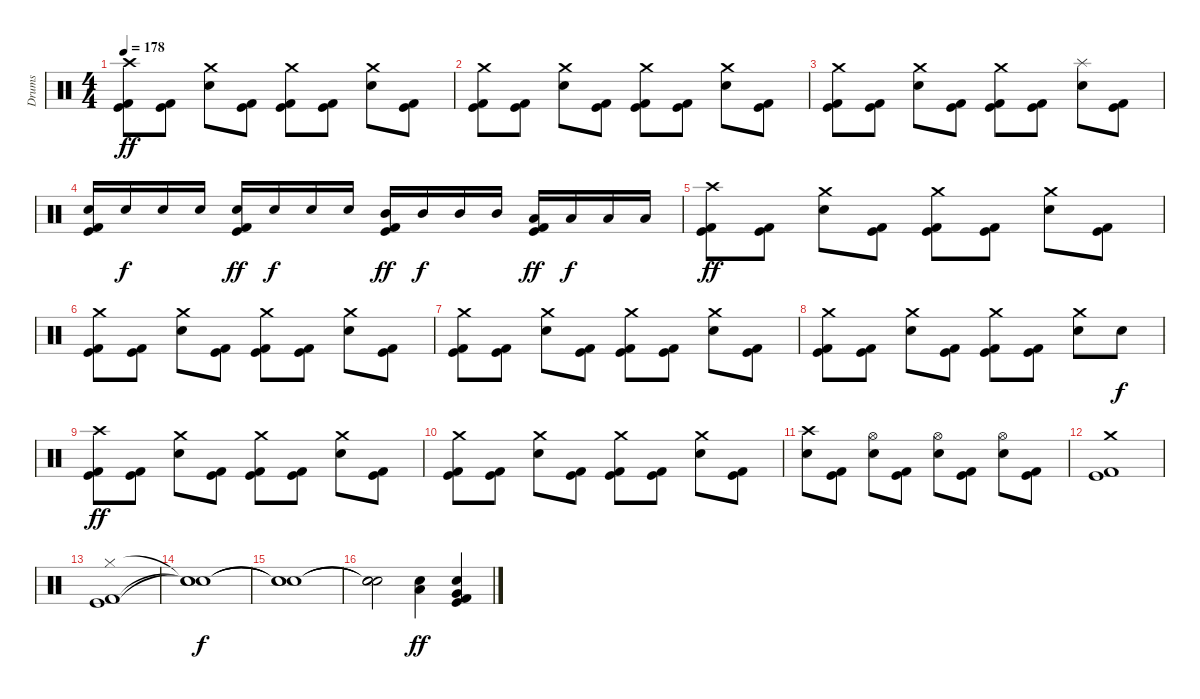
\track ("Drums" "Drums") {instrument percussion}
\staff {score}
\articulation defaults
\ts (4 4)
\tempo 178
\clef neutral
\ks c
("Kick (hit)" "Kick (hit) 2" "Crash high (hit)").8{dy ff} ("Kick (hit)" "Kick (hit) 2").8 ("Electric Snare (hit)" "Crash medium (hit)").8 ("Kick (hit)" "Kick (hit) 2").8 ("Kick (hit)" "Kick (hit) 2" "Crash medium (hit)").8 ("Kick (hit)" "Kick (hit) 2").8 ("Electric Snare (hit)" "Crash medium (hit)").8 ("Kick (hit)" "Kick (hit) 2").8 |
("Kick (hit)" "Kick (hit) 2" "Crash medium (hit)").8 ("Kick (hit)" "Kick (hit) 2").8 ("Electric Snare (hit)" "Crash medium (hit)").8 ("Kick (hit)" "Kick (hit) 2").8 ("Kick (hit)" "Kick (hit) 2" "Crash medium (hit)").8 ("Kick (hit)" "Kick (hit) 2").8 ("Electric Snare (hit)" "Crash medium (hit)").8 ("Kick (hit)" "Kick (hit) 2").8 |
("Kick (hit)" "Kick (hit) 2" "Crash medium (hit)").8 ("Kick (hit)" "Kick (hit) 2").8 ("Electric Snare (hit)" "Crash medium (hit)").8 ("Kick (hit)" "Kick (hit) 2").8 ("Kick (hit)" "Kick (hit) 2" "Crash medium (hit)").8 ("Kick (hit)" "Kick (hit) 2").8 ("Electric Snare (hit)" "Splash (hit)").8 ("Kick (hit)" "Kick (hit) 2").8 |
("Kick (hit)" "Kick (hit) 2" "Electric Snare (hit)").16 "Electric Snare (hit)".16{dy f} "Electric Snare (hit)".16 "Electric Snare (hit)".16 ("Kick (hit)" "Kick (hit) 2" "Electric Snare (hit)").16{dy ff} "Electric Snare (hit)".16{dy f} "Electric Snare (hit)".16 "Electric Snare (hit)".16 ("Kick (hit)" "Kick (hit) 2" "Mid Tom (hit)").16{dy ff} "Mid Tom (hit)".16{dy f} "Mid Tom (hit)".16 "Mid Tom (hit)".16 ("Kick (hit)" "Kick (hit) 2" "Low Tom (hit)").16{dy ff} "Low Tom (hit)".16{dy f} "Low Tom (hit)".16 "Low Tom (hit)".16 |
("Kick (hit)" "Kick (hit) 2" "Crash high (hit)").8{dy ff} ("Kick (hit)" "Kick (hit) 2").8 ("Electric Snare (hit)" "Crash medium (hit)").8 ("Kick (hit)" "Kick (hit) 2").8 ("Kick (hit)" "Kick (hit) 2" "Crash medium (hit)").8 ("Kick (hit)" "Kick (hit) 2").8 ("Electric Snare (hit)" "Crash medium (hit)").8 ("Kick (hit)" "Kick (hit) 2").8 |
("Kick (hit)" "Kick (hit) 2" "Crash medium (hit)").8 ("Kick (hit)" "Kick (hit) 2").8 ("Electric Snare (hit)" "Crash medium (hit)").8 ("Kick (hit)" "Kick (hit) 2").8 ("Kick (hit)" "Kick (hit) 2" "Crash medium (hit)").8 ("Kick (hit)" "Kick (hit) 2").8 ("Electric Snare (hit)" "Crash medium (hit)").8 ("Kick (hit)" "Kick (hit) 2").8 |
("Kick (hit)" "Kick (hit) 2" "Crash medium (hit)").8 ("Kick (hit)" "Kick (hit) 2").8 ("Electric Snare (hit)" "Crash medium (hit)").8 ("Kick (hit)" "Kick (hit) 2").8 ("Kick (hit)" "Kick (hit) 2" "Crash medium (hit)").8 ("Kick (hit)" "Kick (hit) 2").8 ("Electric Snare (hit)" "Crash medium (hit)").8 ("Kick (hit)" "Kick (hit) 2").8 |
("Kick (hit)" "Kick (hit) 2" "Crash medium (hit)").8 ("Kick (hit)" "Kick (hit) 2").8 ("Electric Snare (hit)" "Crash medium (hit)").8 ("Kick (hit)" "Kick (hit) 2").8 ("Kick (hit)" "Kick (hit) 2" "Crash medium (hit)").8 ("Kick (hit)" "Kick (hit) 2").8 ("Electric Snare (hit)" "Crash medium (hit)").8 "Electric Snare (hit)".8{dy f} |
("Kick (hit)" "Kick (hit) 2" "Crash high (hit)").8{dy ff} ("Kick (hit)" "Kick (hit) 2").8 ("Electric Snare (hit)" "Crash medium (hit)").8 ("Kick (hit)" "Kick (hit) 2").8 ("Kick (hit)" "Kick (hit) 2" "Crash medium (hit)").8 ("Kick (hit)" "Kick (hit) 2").8 ("Electric Snare (hit)" "Crash medium (hit)").8 ("Kick (hit)" "Kick (hit) 2").8 |
("Kick (hit)" "Kick (hit) 2" "Crash medium (hit)").8 ("Kick (hit)" "Kick (hit) 2").8 ("Electric Snare (hit)" "Crash medium (hit)").8 ("Kick (hit)" "Kick (hit) 2").8 ("Kick (hit)" "Kick (hit) 2" "Crash medium (hit)").8 ("Kick (hit)" "Kick (hit) 2").8 ("Electric Snare (hit)" "Crash medium (hit)").8 ("Kick (hit)" "Kick (hit) 2").8 |
("Electric Snare (hit)" "Crash high (hit)").8 ("Kick (hit)" "Kick (hit) 2").8 ("Electric Snare (hit)" "Hi-Hat (open)").8 ("Kick (hit)" "Kick (hit) 2").8 ("Electric Snare (hit)" "Hi-Hat (open)").8 ("Kick (hit)" "Kick (hit) 2").8 ("Electric Snare (hit)" "Hi-Hat (open)").8 ("Kick (hit)" "Kick (hit) 2").8 |
("Kick (hit)" "Kick (hit) 2" "Crash medium (hit)").1 |
("Kick (hit)" "Kick (hit) 2" "Hi-Hat (closed)").1 |
("Snare (hit)"{t} "Snare (hit)"{t} "Snare (hit)"{t}).1{dy f} |
("Snare (hit)"{t} "Snare (hit)"{t} "Snare (hit)"{t}).1 |
("Snare (hit)"{t} "Snare (hit)"{t} "Snare (hit)"{t}).2 ("Low Tom (hit)" "Electric Snare (hit)").4{dy ff} ("Kick (hit)" "Kick (hit) 2" "Very Low Tom (hit)" "Electric Snare (hit)").4
